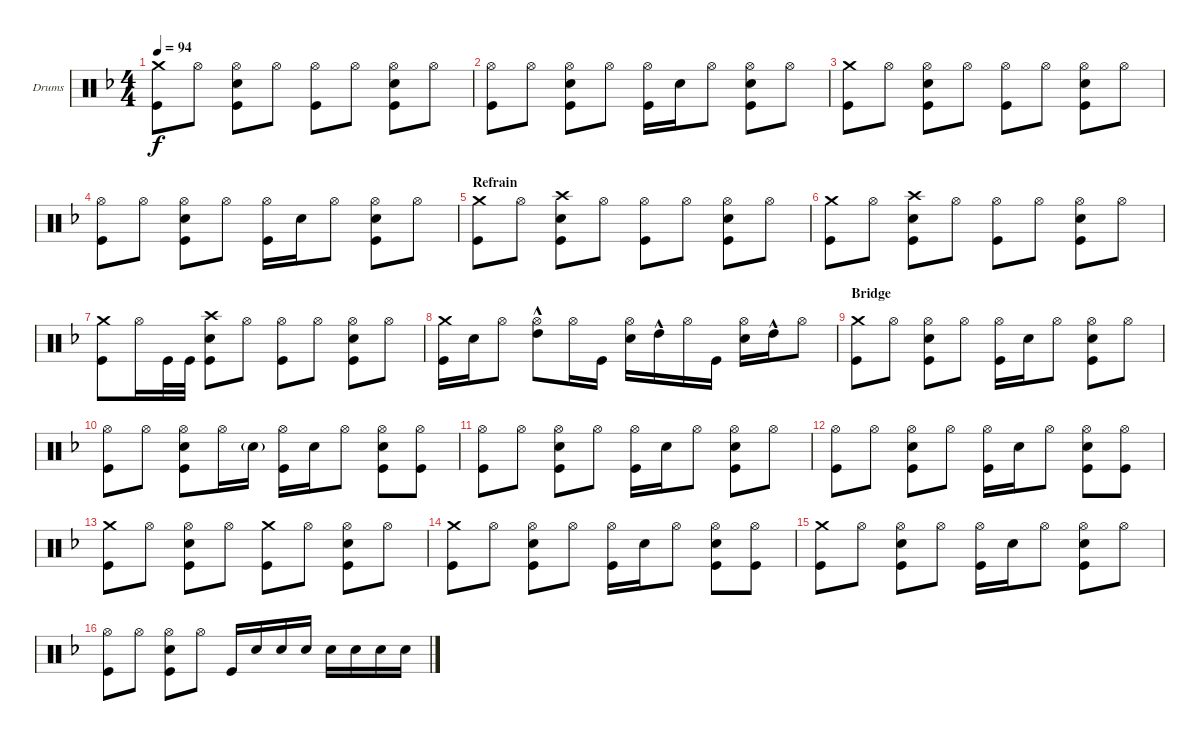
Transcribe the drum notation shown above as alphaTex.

\defaultSystemsLayout 4
\bracketExtendMode groupsimilarinstruments
\firstSystemTrackNameOrientation horizontal
\otherSystemsTrackNameOrientation horizontal
\track ("Drumkit" "Drums") {instrument percussion}
\staff {score}
\articulation defaults
\ts (4 4)
\tempo 94
\clef neutral
\ks dminor
("Kick (hit)" "Crash medium (hit)").8{dy f} "Hi-Hat (open)".8 ("Kick (hit)" "Snare (hit) 2" "Hi-Hat (open)").8 "Hi-Hat (open)".8 ("Hi-Hat (open)" "Kick (hit)").8 "Hi-Hat (open)".8 ("Hi-Hat (open)" "Kick (hit)" "Snare (hit) 2").8 "Hi-Hat (open)".8 |
("Kick (hit)" "Hi-Hat (open)").8 "Hi-Hat (open)".8 ("Kick (hit)" "Snare (hit) 2" "Hi-Hat (open)").8 "Hi-Hat (open)".8 ("Hi-Hat (open)" "Kick (hit)").16 "Snare (hit) 2".16 "Hi-Hat (open)".8 ("Hi-Hat (open)" "Kick (hit)" "Snare (hit) 2").8 "Hi-Hat (open)".8 |
("Kick (hit)" "Crash medium (hit)").8 "Hi-Hat (open)".8 ("Kick (hit)" "Snare (hit) 2" "Hi-Hat (open)").8 "Hi-Hat (open)".8 ("Hi-Hat (open)" "Kick (hit)").8 "Hi-Hat (open)".8 ("Hi-Hat (open)" "Kick (hit)" "Snare (hit) 2").8 "Hi-Hat (open)".8 |
("Kick (hit)" "Hi-Hat (open)").8 "Hi-Hat (open)".8 ("Kick (hit)" "Snare (hit) 2" "Hi-Hat (open)").8 "Hi-Hat (open)".8 ("Hi-Hat (open)" "Kick (hit)").16 "Snare (hit) 2".16 "Hi-Hat (open)".8 ("Hi-Hat (open)" "Kick (hit)" "Snare (hit) 2").8 "Hi-Hat (open)".8 |
\section ("" "Refrain")
("Kick (hit)" "Crash medium (hit)").8 "Hi-Hat (open)".8 ("Crash high (hit)" "Snare (hit) 2" "Kick (hit)").8 "Hi-Hat (open)".8 ("Hi-Hat (open)" "Kick (hit)").8 "Hi-Hat (open)".8 ("Hi-Hat (open)" "Kick (hit)" "Snare (hit) 2").8 "Hi-Hat (open)".8 |
("Kick (hit)" "Crash medium (hit)").8 "Hi-Hat (open)".8 ("Crash high (hit)" "Snare (hit) 2" "Kick (hit)").8 "Hi-Hat (open)".8 ("Hi-Hat (open)" "Kick (hit)").8 "Hi-Hat (open)".8 ("Hi-Hat (open)" "Kick (hit)" "Snare (hit) 2").8 "Hi-Hat (open)".8 |
("Kick (hit)" "Crash medium (hit)").8 "Hi-Hat (open)".16 "Kick (hit)".32 "Kick (hit)".32 ("Crash high (hit)" "Snare (hit) 2" "Kick (hit)").8 "Hi-Hat (open)".8 ("Hi-Hat (open)" "Kick (hit)").8 "Hi-Hat (open)".8 ("Hi-Hat (open)" "Kick (hit)" "Snare (hit) 2").8 "Hi-Hat (open)".8 |
("Kick (hit)" "Crash medium (hit)").16 "Snare (hit) 2".16 "Hi-Hat (open)".8 ("High Tom (hit)"{hac} "Hi-Hat (open)").8 "Hi-Hat (open)".16 "Kick (hit)".16 ("Hi-Hat (open)" "Snare (hit) 2").16 "High Tom (hit)"{hac}.16 "Hi-Hat (open)".16 "Kick (hit)".16 ("Hi-Hat (open)" "Snare (hit) 2").16 "High Tom (hit)"{hac}.16 "Hi-Hat (open)".8 |
\section ("" "Bridge")
("Kick (hit)" "Crash medium (hit)").8 "Hi-Hat (open)".8 ("Kick (hit)" "Snare (hit) 2" "Hi-Hat (open)").8 "Hi-Hat (open)".8 ("Hi-Hat (open)" "Kick (hit)").16 "Snare (hit) 2".16 "Hi-Hat (open)".8 ("Hi-Hat (open)" "Kick (hit)" "Snare (hit) 2").8 "Hi-Hat (open)".8 |
("Kick (hit)" "Hi-Hat (open)").8 "Hi-Hat (open)".8 ("Kick (hit)" "Snare (hit) 2" "Hi-Hat (open)").8 "Hi-Hat (open)".16 "Snare (hit) 2"{g}.16 ("Hi-Hat (open)" "Kick (hit)").16 "Snare (hit) 2".16 "Hi-Hat (open)".8 ("Hi-Hat (open)" "Kick (hit)" "Snare (hit) 2").8 ("Hi-Hat (open)" "Kick (hit)").8 |
("Kick (hit)" "Hi-Hat (open)").8 "Hi-Hat (open)".8 ("Kick (hit)" "Snare (hit) 2" "Hi-Hat (open)").8 "Hi-Hat (open)".8 ("Hi-Hat (open)" "Kick (hit)").16 "Snare (hit) 2".16 "Hi-Hat (open)".8 ("Hi-Hat (open)" "Kick (hit)" "Snare (hit) 2").8 "Hi-Hat (open)".8 |
("Kick (hit)" "Hi-Hat (open)").8 "Hi-Hat (open)".8 ("Kick (hit)" "Snare (hit) 2" "Hi-Hat (open)").8 "Hi-Hat (open)".8 ("Hi-Hat (open)" "Kick (hit)").16 "Snare (hit) 2".16 "Hi-Hat (open)".8 ("Hi-Hat (open)" "Kick (hit)" "Snare (hit) 2").8 ("Hi-Hat (open)" "Kick (hit)").8 |
("Kick (hit)" "Crash medium (hit)").8 "Hi-Hat (open)".8 ("Kick (hit)" "Snare (hit) 2" "Hi-Hat (open)").8 "Hi-Hat (open)".8 ("Kick (hit)" "Crash medium (hit)").8 "Hi-Hat (open)".8 ("Kick (hit)" "Snare (hit) 2" "Hi-Hat (open)").8 "Hi-Hat (open)".8 |
("Kick (hit)" "Crash medium (hit)").8 "Hi-Hat (open)".8 ("Kick (hit)" "Snare (hit) 2" "Hi-Hat (open)").8 "Hi-Hat (open)".8 ("Kick (hit)" "Hi-Hat (open)").16 "Snare (hit) 2".16 "Hi-Hat (open)".8 ("Hi-Hat (open)" "Kick (hit)" "Snare (hit) 2").8 ("Hi-Hat (open)" "Kick (hit)").8 |
("Kick (hit)" "Crash medium (hit)").8 "Hi-Hat (open)".8 ("Kick (hit)" "Snare (hit) 2" "Hi-Hat (open)").8 "Hi-Hat (open)".8 ("Kick (hit)" "Hi-Hat (open)").16 "Snare (hit) 2".16 "Hi-Hat (open)".8 ("Hi-Hat (open)" "Kick (hit)" "Snare (hit) 2").8 "Hi-Hat (open)".8 |
("Kick (hit)" "Hi-Hat (open)").8 "Hi-Hat (open)".8 ("Kick (hit)" "Snare (hit) 2" "Hi-Hat (open)").8 "Hi-Hat (open)".8 "Kick (hit)".16 "Snare (hit) 2".16 "Snare (hit) 2".16 "Snare (hit) 2".16 "Snare (hit) 2".16 "Snare (hit) 2".16 "Snare (hit) 2".16 "Snare (hit) 2".16
